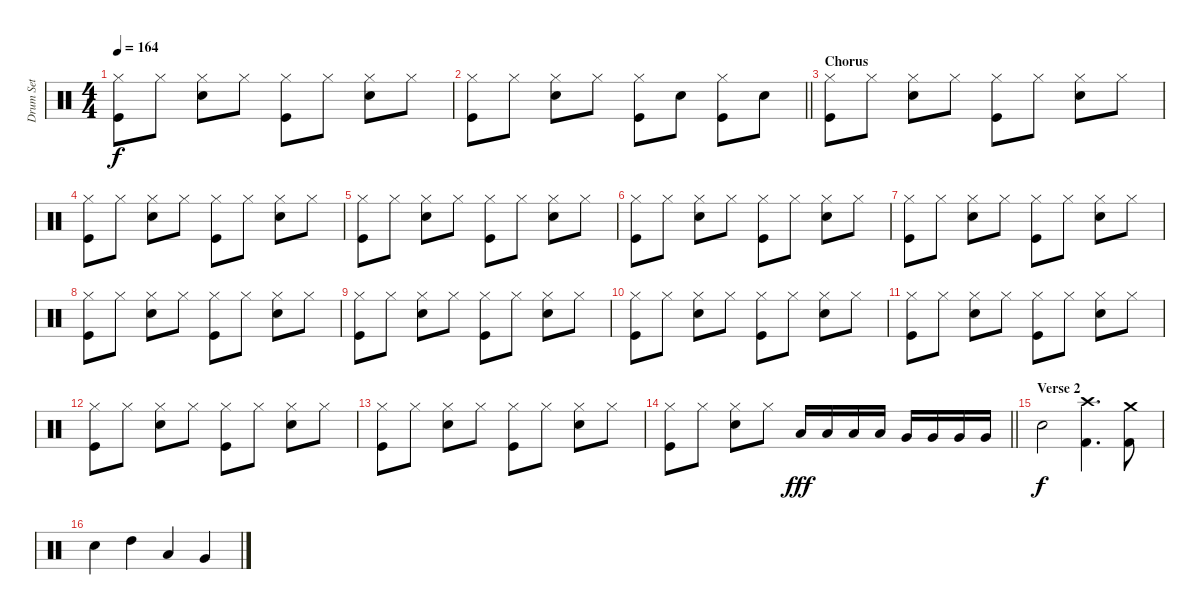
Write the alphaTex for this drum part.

\track ("Drum Set" "Drum Set") {instrument percussion}
\staff {score}
\articulation defaults
\ts (4 4)
\tempo 164
\clef neutral
\ks c
("Kick (hit)" "Hi-Hat (closed)").8{dy f} "Hi-Hat (closed)".8 ("Electric Snare (hit)" "Hi-Hat (closed)").8 "Hi-Hat (closed)".8 ("Kick (hit)" "Hi-Hat (closed)").8 "Hi-Hat (closed)".8 ("Electric Snare (hit)" "Hi-Hat (closed)").8 "Hi-Hat (closed)".8 |
\barLineRight lightlight
("Kick (hit)" "Hi-Hat (closed)").8 "Hi-Hat (closed)".8 ("Electric Snare (hit)" "Hi-Hat (closed)").8 "Hi-Hat (closed)".8 ("Kick (hit)" "Hi-Hat (closed)").8 "Electric Snare (hit)".8 ("Kick (hit)" "Hi-Hat (closed)").8 "Electric Snare (hit)".8 |
\section ("" "Chorus")
("Kick (hit)" "Hi-Hat (closed)").8 "Hi-Hat (closed)".8 ("Electric Snare (hit)" "Hi-Hat (closed)").8 "Hi-Hat (closed)".8 ("Kick (hit)" "Hi-Hat (closed)").8 "Hi-Hat (closed)".8 ("Electric Snare (hit)" "Hi-Hat (closed)").8 "Hi-Hat (closed)".8 |
("Kick (hit)" "Hi-Hat (closed)").8 "Hi-Hat (closed)".8 ("Electric Snare (hit)" "Hi-Hat (closed)").8 "Hi-Hat (closed)".8 ("Kick (hit)" "Hi-Hat (closed)").8 "Hi-Hat (closed)".8 ("Electric Snare (hit)" "Hi-Hat (closed)").8 "Hi-Hat (closed)".8 |
("Kick (hit)" "Hi-Hat (closed)").8 "Hi-Hat (closed)".8 ("Electric Snare (hit)" "Hi-Hat (closed)").8 "Hi-Hat (closed)".8 ("Kick (hit)" "Hi-Hat (closed)").8 "Hi-Hat (closed)".8 ("Electric Snare (hit)" "Hi-Hat (closed)").8 "Hi-Hat (closed)".8 |
("Kick (hit)" "Hi-Hat (closed)").8 "Hi-Hat (closed)".8 ("Electric Snare (hit)" "Hi-Hat (closed)").8 "Hi-Hat (closed)".8 ("Kick (hit)" "Hi-Hat (closed)").8 "Hi-Hat (closed)".8 ("Electric Snare (hit)" "Hi-Hat (closed)").8 "Hi-Hat (closed)".8 |
("Kick (hit)" "Hi-Hat (closed)").8 "Hi-Hat (closed)".8 ("Electric Snare (hit)" "Hi-Hat (closed)").8 "Hi-Hat (closed)".8 ("Kick (hit)" "Hi-Hat (closed)").8 "Hi-Hat (closed)".8 ("Electric Snare (hit)" "Hi-Hat (closed)").8 "Hi-Hat (closed)".8 |
("Kick (hit)" "Hi-Hat (closed)").8 "Hi-Hat (closed)".8 ("Electric Snare (hit)" "Hi-Hat (closed)").8 "Hi-Hat (closed)".8 ("Kick (hit)" "Hi-Hat (closed)").8 "Hi-Hat (closed)".8 ("Electric Snare (hit)" "Hi-Hat (closed)").8 "Hi-Hat (closed)".8 |
("Kick (hit)" "Hi-Hat (closed)").8 "Hi-Hat (closed)".8 ("Electric Snare (hit)" "Hi-Hat (closed)").8 "Hi-Hat (closed)".8 ("Kick (hit)" "Hi-Hat (closed)").8 "Hi-Hat (closed)".8 ("Electric Snare (hit)" "Hi-Hat (closed)").8 "Hi-Hat (closed)".8 |
("Kick (hit)" "Hi-Hat (closed)").8 "Hi-Hat (closed)".8 ("Electric Snare (hit)" "Hi-Hat (closed)").8 "Hi-Hat (closed)".8 ("Kick (hit)" "Hi-Hat (closed)").8 "Hi-Hat (closed)".8 ("Electric Snare (hit)" "Hi-Hat (closed)").8 "Hi-Hat (closed)".8 |
("Kick (hit)" "Hi-Hat (closed)").8 "Hi-Hat (closed)".8 ("Electric Snare (hit)" "Hi-Hat (closed)").8 "Hi-Hat (closed)".8 ("Kick (hit)" "Hi-Hat (closed)").8 "Hi-Hat (closed)".8 ("Electric Snare (hit)" "Hi-Hat (closed)").8 "Hi-Hat (closed)".8 |
("Kick (hit)" "Hi-Hat (closed)").8 "Hi-Hat (closed)".8 ("Electric Snare (hit)" "Hi-Hat (closed)").8 "Hi-Hat (closed)".8 ("Kick (hit)" "Hi-Hat (closed)").8 "Hi-Hat (closed)".8 ("Electric Snare (hit)" "Hi-Hat (closed)").8 "Hi-Hat (closed)".8 |
("Kick (hit)" "Hi-Hat (closed)").8 "Hi-Hat (closed)".8 ("Electric Snare (hit)" "Hi-Hat (closed)").8 "Hi-Hat (closed)".8 ("Kick (hit)" "Hi-Hat (closed)").8 "Hi-Hat (closed)".8 ("Electric Snare (hit)" "Hi-Hat (closed)").8 "Hi-Hat (closed)".8 |
\barLineRight lightlight
("Kick (hit)" "Hi-Hat (closed)").8 "Hi-Hat (closed)".8 ("Electric Snare (hit)" "Hi-Hat (closed)").8 "Hi-Hat (closed)".8 "Low Tom (hit)".16{dy fff} "Low Tom (hit)".16 "Low Tom (hit)".16 "Low Tom (hit)".16 "Very Low Tom (hit)".16 "Very Low Tom (hit)".16 "Very Low Tom (hit)".16 "Very Low Tom (hit)".16 |
\section ("" "Verse 2")
"Electric Snare (hit)".2{dy f} ("Crash high (hit)" "Kick (hit) 2").4{d} ("Crash medium (hit)" "Kick (hit) 2").8 |
"Electric Snare (hit)".4 "High Tom (hit)".4 "Low Tom (hit)".4 "Very Low Tom (hit)".4
